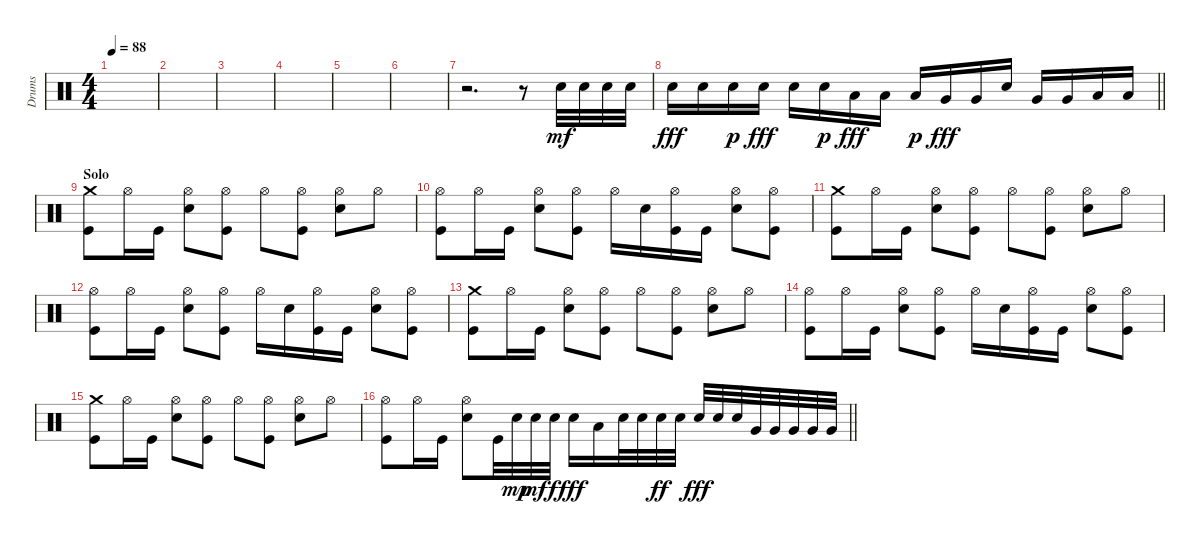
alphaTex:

\track ("Drums" "Drums") {instrument percussion}
\staff {score}
\articulation defaults
\ts (4 4)
\tempo 88
\clef neutral
\ks c
|
|
|
|
|
|
r.2{d} r.8 "Snare (hit) 2".32{dy mf} "Snare (hit) 2".32 "Snare (hit) 2".32 "Snare (hit) 2".32 |
\barLineRight lightlight "Snare (hit) 2".16{dy fff} "Snare (hit) 2".16 "Snare (hit) 2".16{dy p} "Snare (hit) 2".16{dy fff} "Snare (hit) 2".16 "Snare (hit) 2".16{dy p} "Low Tom (hit)".16{dy fff} "Low Tom (hit)".16 "Low Tom (hit)".16{dy p} "Very Low Tom (hit)".16{dy fff} "Very Low Tom (hit)".16 "Snare (hit) 2".16 "Very Low Tom (hit)".16 "Very Low Tom (hit)".16 "Low Floor Tom (hit)".16 "Low Floor Tom (hit)".16
|
\section ("" "Solo")
("Crash medium (hit)" "Kick (hit)").8 "Hi-Hat (open)".16 "Kick (hit)".16 ("Hi-Hat (open)" "Snare (hit) 2").8 ("Hi-Hat (open)" "Kick (hit)").8 "Hi-Hat (open)".8 ("Hi-Hat (open)" "Kick (hit)").8 ("Hi-Hat (open)" "Snare (hit) 2").8 "Hi-Hat (open)".8 |
("Hi-Hat (open)" "Kick (hit)").8 "Hi-Hat (open)".16 "Kick (hit)".16 ("Hi-Hat (open)" "Snare (hit) 2").8 ("Hi-Hat (open)" "Kick (hit)").8 "Hi-Hat (open)".16 "Snare (hit) 2".16 ("Hi-Hat (open)" "Kick (hit)").16 "Kick (hit)".16 ("Hi-Hat (open)" "Snare (hit) 2").8 ("Hi-Hat (open)" "Kick (hit)").8 |
("Crash medium (hit)" "Kick (hit)").8 "Hi-Hat (open)".16 "Kick (hit)".16 ("Hi-Hat (open)" "Snare (hit) 2").8 ("Hi-Hat (open)" "Kick (hit)").8 "Hi-Hat (open)".8 ("Hi-Hat (open)" "Kick (hit)").8 ("Hi-Hat (open)" "Snare (hit) 2").8 "Hi-Hat (open)".8 |
("Hi-Hat (open)" "Kick (hit)").8 "Hi-Hat (open)".16 "Kick (hit)".16 ("Hi-Hat (open)" "Snare (hit) 2").8 ("Hi-Hat (open)" "Kick (hit)").8 "Hi-Hat (open)".16 "Snare (hit) 2".16 ("Hi-Hat (open)" "Kick (hit)").16 "Kick (hit)".16 ("Hi-Hat (open)" "Snare (hit) 2").8 ("Hi-Hat (open)" "Kick (hit)").8 |
("Crash medium (hit)" "Kick (hit)").8 "Hi-Hat (open)".16 "Kick (hit)".16 ("Hi-Hat (open)" "Snare (hit) 2").8 ("Hi-Hat (open)" "Kick (hit)").8 "Hi-Hat (open)".8 ("Hi-Hat (open)" "Kick (hit)").8 ("Hi-Hat (open)" "Snare (hit) 2").8 "Hi-Hat (open)".8 |
("Hi-Hat (open)" "Kick (hit)").8 "Hi-Hat (open)".16 "Kick (hit)".16 ("Hi-Hat (open)" "Snare (hit) 2").8 ("Hi-Hat (open)" "Kick (hit)").8 "Hi-Hat (open)".16 "Snare (hit) 2".16 ("Hi-Hat (open)" "Kick (hit)").16 "Kick (hit)".16 ("Hi-Hat (open)" "Snare (hit) 2").8 ("Hi-Hat (open)" "Kick (hit)").8 |
("Crash medium (hit)" "Kick (hit)").8 "Hi-Hat (open)".16 "Kick (hit)".16 ("Hi-Hat (open)" "Snare (hit) 2").8 ("Hi-Hat (open)" "Kick (hit)").8 "Hi-Hat (open)".8 ("Hi-Hat (open)" "Kick (hit)").8 ("Hi-Hat (open)" "Snare (hit) 2").8 "Hi-Hat (open)".8 |
\barLineRight lightlight
("Hi-Hat (open)" "Kick (hit)").8 "Hi-Hat (open)".16 "Kick (hit)".16 ("Hi-Hat (open)" "Snare (hit) 2").8 "Kick (hit)".32 "Snare (hit) 2".32{dy mp} "Snare (hit) 2".32{dy mf} "Snare (hit) 2".32{dy f} "Snare (hit) 2".16{dy fff} "Low Tom (hit)".16 "Snare (hit) 2".32 "Snare (hit) 2".32 "Snare (hit) 2".32{dy ff} "Snare (hit) 2".32 "Snare (hit) 2".32{dy fff} "Snare (hit) 2".32 "Snare (hit) 2".32 "Very Low Tom (hit)".32 "Very Low Tom (hit)".32 "Very Low Tom (hit)".32 "Very Low Tom (hit)".32 "Very Low Tom (hit)".32
